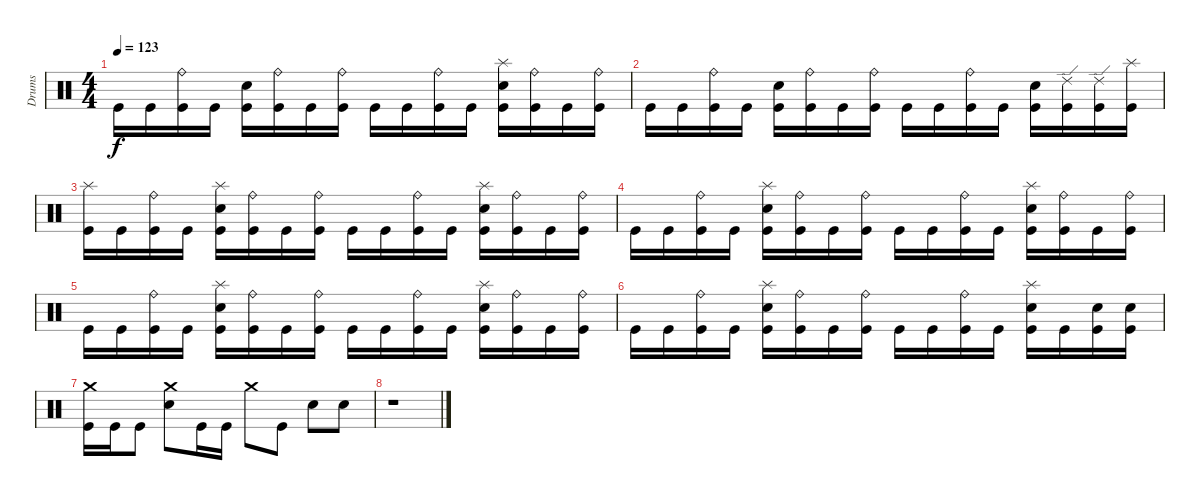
\track ("Drums" "Drums") {instrument percussion}
\staff {score}
\articulation defaults
\ts (4 4)
\tempo 123
\clef neutral
\ks c "Kick (hit)".16{dy f} "Kick (hit)".16
("Ride (bell)" "Kick (hit)").16 "Kick (hit)".16 ("Electric Snare (hit)" "Kick (hit)").16 ("Ride (bell)" "Kick (hit)").16 "Kick (hit)".16 ("Ride (bell)" "Kick (hit)").16 "Kick (hit)".16 "Kick (hit)".16 ("Ride (bell)" "Kick (hit)").16 "Kick (hit)".16 ("Splash (hit)" "Electric Snare (hit)" "Kick (hit)").16 ("Ride (bell)" "Kick (hit)").16 "Kick (hit)".16 ("Ride (bell)" "Kick (hit)").16 |
"Kick (hit)".16 "Kick (hit)".16 ("Ride (bell)" "Kick (hit)").16 "Kick (hit)".16 ("Electric Snare (hit)" "Kick (hit)").16 ("Ride (bell)" "Kick (hit)").16 "Kick (hit)".16 ("Ride (bell)" "Kick (hit)").16 "Kick (hit)".16 "Kick (hit)".16 ("Ride (bell)" "Kick (hit)").16 "Kick (hit)".16 ("Electric Snare (hit)" "Kick (hit)").16 ("Ride (edge) 2" "Kick (hit)").16 ("Ride (edge) 2" "Kick (hit)").16 ("Splash (hit)" "Kick (hit)").16 |
("Splash (hit)" "Kick (hit)").16 "Kick (hit)".16 ("Ride (bell)" "Kick (hit)").16 "Kick (hit)".16 ("Splash (hit)" "Electric Snare (hit)" "Kick (hit)").16 ("Ride (bell)" "Kick (hit)").16 "Kick (hit)".16 ("Ride (bell)" "Kick (hit)").16 "Kick (hit)".16 "Kick (hit)".16 ("Ride (bell)" "Kick (hit)").16 "Kick (hit)".16 ("Splash (hit)" "Electric Snare (hit)" "Kick (hit)").16 ("Ride (bell)" "Kick (hit)").16 "Kick (hit)".16 ("Ride (bell)" "Kick (hit)").16 |
"Kick (hit)".16 "Kick (hit)".16 ("Ride (bell)" "Kick (hit)").16 "Kick (hit)".16 ("Splash (hit)" "Electric Snare (hit)" "Kick (hit)").16 ("Ride (bell)" "Kick (hit)").16 "Kick (hit)".16 ("Ride (bell)" "Kick (hit)").16 "Kick (hit)".16 "Kick (hit)".16 ("Ride (bell)" "Kick (hit)").16 "Kick (hit)".16 ("Splash (hit)" "Electric Snare (hit)" "Kick (hit)").16 ("Ride (bell)" "Kick (hit)").16 "Kick (hit)".16 ("Ride (bell)" "Kick (hit)").16 |
"Kick (hit)".16 "Kick (hit)".16 ("Ride (bell)" "Kick (hit)").16 "Kick (hit)".16 ("Splash (hit)" "Electric Snare (hit)" "Kick (hit)").16 ("Ride (bell)" "Kick (hit)").16 "Kick (hit)".16 ("Ride (bell)" "Kick (hit)").16 "Kick (hit)".16 "Kick (hit)".16 ("Ride (bell)" "Kick (hit)").16 "Kick (hit)".16 ("Splash (hit)" "Electric Snare (hit)" "Kick (hit)").16 ("Ride (bell)" "Kick (hit)").16 "Kick (hit)".16 ("Ride (bell)" "Kick (hit)").16 |
"Kick (hit)".16 "Kick (hit)".16 ("Ride (bell)" "Kick (hit)").16 "Kick (hit)".16 ("Splash (hit)" "Electric Snare (hit)" "Kick (hit)").16 ("Ride (bell)" "Kick (hit)").16 "Kick (hit)".16 ("Ride (bell)" "Kick (hit)").16 "Kick (hit)".16 "Kick (hit)".16 ("Ride (bell)" "Kick (hit)").16 "Kick (hit)".16 ("Splash (hit)" "Electric Snare (hit)" "Kick (hit)").16 "Kick (hit)".16 ("Electric Snare (hit)" "Kick (hit)").16 ("Electric Snare (hit)" "Kick (hit)").16 |
("Crash medium (hit)" "Kick (hit)").16 "Kick (hit)".16 "Kick (hit)".8 ("Crash medium (hit)" "Electric Snare (hit)").8 "Kick (hit)".16 "Kick (hit)".16 "Crash medium (hit)".8 "Kick (hit)".8 "Electric Snare (hit)".8 "Electric Snare (hit)".8 |
r.1
